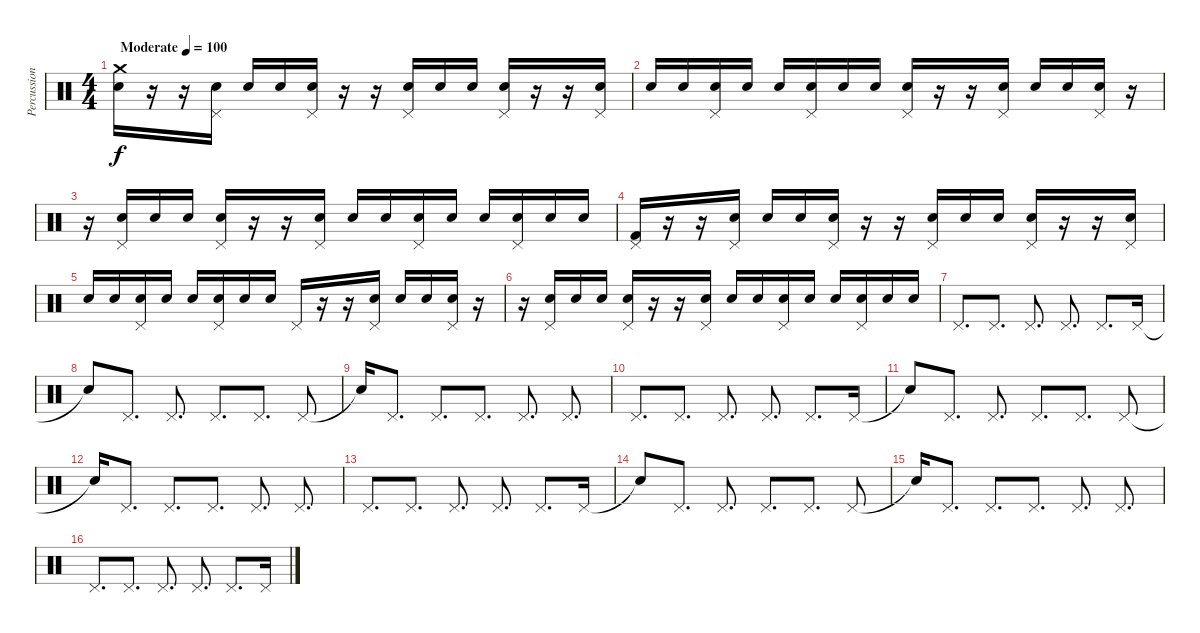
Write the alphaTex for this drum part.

\track ("Percussion" "Percussion") {instrument percussion}
\staff {score}
\articulation defaults
\ts (4 4)
\tempo (100 "Moderate")
\clef neutral
\ks c
("Crash medium (hit)" "Snare (hit) 2").16{dy f} r.16 r.16 ("Pedal Hi-Hat (hit)" "Snare (hit) 2").16 "Snare (hit) 2".16 "Snare (hit) 2".16 ("Pedal Hi-Hat (hit)" "Snare (hit) 2").16 r.16 r.16 ("Pedal Hi-Hat (hit)" "Snare (hit) 2").16 "Snare (hit) 2".16 "Snare (hit) 2".16 ("Pedal Hi-Hat (hit)" "Snare (hit) 2").16 r.16 r.16 ("Pedal Hi-Hat (hit)" "Snare (hit) 2").16 |
"Snare (hit) 2".16 "Snare (hit) 2".16 ("Pedal Hi-Hat (hit)" "Snare (hit) 2").16 "Snare (hit) 2".16 "Snare (hit) 2".16 ("Pedal Hi-Hat (hit)" "Snare (hit) 2").16 "Snare (hit) 2".16 "Snare (hit) 2".16 ("Pedal Hi-Hat (hit)" "Snare (hit) 2").16 r.16 r.16 ("Pedal Hi-Hat (hit)" "Snare (hit) 2").16 "Snare (hit) 2".16 "Snare (hit) 2".16 ("Pedal Hi-Hat (hit)" "Snare (hit) 2").16 r.16 |
r.16 ("Pedal Hi-Hat (hit)" "Snare (hit) 2").16 "Snare (hit) 2".16 "Snare (hit) 2".16 ("Pedal Hi-Hat (hit)" "Snare (hit) 2").16 r.16 r.16 ("Pedal Hi-Hat (hit)" "Snare (hit) 2").16 "Snare (hit) 2".16 "Snare (hit) 2".16 ("Pedal Hi-Hat (hit)" "Snare (hit) 2").16 "Snare (hit) 2".16 "Snare (hit) 2".16 ("Pedal Hi-Hat (hit)" "Snare (hit) 2").16 "Snare (hit) 2".16 "Snare (hit) 2".16 |
("Pedal Hi-Hat (hit)" "Kick (hit) 2").16 r.16 r.16 ("Pedal Hi-Hat (hit)" "Snare (hit) 2").16 "Snare (hit) 2".16 "Snare (hit) 2".16 ("Pedal Hi-Hat (hit)" "Snare (hit) 2").16 r.16 r.16 ("Pedal Hi-Hat (hit)" "Snare (hit) 2").16 "Snare (hit) 2".16 "Snare (hit) 2".16 ("Pedal Hi-Hat (hit)" "Snare (hit) 2").16 r.16 r.16 ("Pedal Hi-Hat (hit)" "Snare (hit) 2").16 |
"Snare (hit) 2".16 "Snare (hit) 2".16 ("Pedal Hi-Hat (hit)" "Snare (hit) 2").16 "Snare (hit) 2".16 "Snare (hit) 2".16 ("Pedal Hi-Hat (hit)" "Snare (hit) 2").16 "Snare (hit) 2".16 "Snare (hit) 2".16 "Pedal Hi-Hat (hit)".16 r.16 r.16 ("Pedal Hi-Hat (hit)" "Snare (hit) 2").16 "Snare (hit) 2".16 "Snare (hit) 2".16 ("Pedal Hi-Hat (hit)" "Snare (hit) 2").16 r.16 |
r.16 ("Pedal Hi-Hat (hit)" "Snare (hit) 2").16 "Snare (hit) 2".16 "Snare (hit) 2".16 ("Pedal Hi-Hat (hit)" "Snare (hit) 2").16 r.16 r.16 ("Pedal Hi-Hat (hit)" "Snare (hit) 2").16 "Snare (hit) 2".16 "Snare (hit) 2".16 ("Pedal Hi-Hat (hit)" "Snare (hit) 2").16 "Snare (hit) 2".16 "Snare (hit) 2".16 ("Pedal Hi-Hat (hit)" "Snare (hit) 2").16 "Snare (hit) 2".16 "Snare (hit) 2".16 |
"Pedal Hi-Hat (hit)".8{d} "Pedal Hi-Hat (hit)".8{d} "Pedal Hi-Hat (hit)".8{d} "Pedal Hi-Hat (hit)".8{d} "Pedal Hi-Hat (hit)".8{d} "Pedal Hi-Hat (hit)".16 |
"Snare (hit)"{t}.8 "Pedal Hi-Hat (hit)".8{d} "Pedal Hi-Hat (hit)".8{d} "Pedal Hi-Hat (hit)".8{d} "Pedal Hi-Hat (hit)".8{d} "Pedal Hi-Hat (hit)".8 |
"Snare (hit)"{t}.16 "Pedal Hi-Hat (hit)".8{d} "Pedal Hi-Hat (hit)".8{d} "Pedal Hi-Hat (hit)".8{d} "Pedal Hi-Hat (hit)".8{d} "Pedal Hi-Hat (hit)".8{d} |
"Pedal Hi-Hat (hit)".8{d} "Pedal Hi-Hat (hit)".8{d} "Pedal Hi-Hat (hit)".8{d} "Pedal Hi-Hat (hit)".8{d} "Pedal Hi-Hat (hit)".8{d} "Pedal Hi-Hat (hit)".16 |
"Snare (hit)"{t}.8 "Pedal Hi-Hat (hit)".8{d} "Pedal Hi-Hat (hit)".8{d} "Pedal Hi-Hat (hit)".8{d} "Pedal Hi-Hat (hit)".8{d} "Pedal Hi-Hat (hit)".8 |
"Snare (hit)"{t}.16 "Pedal Hi-Hat (hit)".8{d} "Pedal Hi-Hat (hit)".8{d} "Pedal Hi-Hat (hit)".8{d} "Pedal Hi-Hat (hit)".8{d} "Pedal Hi-Hat (hit)".8{d} |
"Pedal Hi-Hat (hit)".8{d} "Pedal Hi-Hat (hit)".8{d} "Pedal Hi-Hat (hit)".8{d} "Pedal Hi-Hat (hit)".8{d} "Pedal Hi-Hat (hit)".8{d} "Pedal Hi-Hat (hit)".16 |
"Snare (hit)"{t}.8 "Pedal Hi-Hat (hit)".8{d} "Pedal Hi-Hat (hit)".8{d} "Pedal Hi-Hat (hit)".8{d} "Pedal Hi-Hat (hit)".8{d} "Pedal Hi-Hat (hit)".8 |
"Snare (hit)"{t}.16 "Pedal Hi-Hat (hit)".8{d} "Pedal Hi-Hat (hit)".8{d} "Pedal Hi-Hat (hit)".8{d} "Pedal Hi-Hat (hit)".8{d} "Pedal Hi-Hat (hit)".8{d} |
"Pedal Hi-Hat (hit)".8{d} "Pedal Hi-Hat (hit)".8{d} "Pedal Hi-Hat (hit)".8{d} "Pedal Hi-Hat (hit)".8{d} "Pedal Hi-Hat (hit)".8{d} "Pedal Hi-Hat (hit)".16
